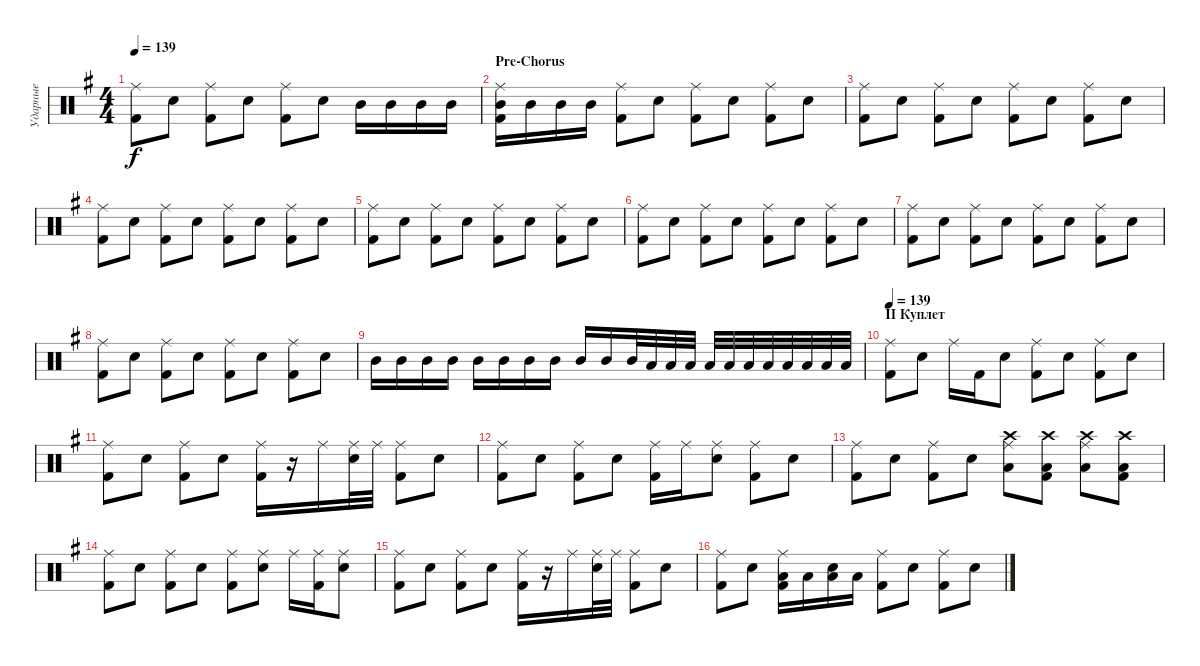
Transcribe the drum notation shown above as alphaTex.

\track ("Ударные" "Ударные") {instrument percussion}
\staff {score}
\articulation defaults
\ts (4 4)
\tempo 139
\clef neutral
\ks eminor
("Ride (middle)" "Kick (hit) 2").8{dy f} "Snare (hit) 2".8 ("Ride (middle)" "Kick (hit) 2").8 "Snare (hit) 2".8 ("Ride (middle)" "Kick (hit) 2").8 "Snare (hit) 2".8 "Mid Tom (hit)".16 "Mid Tom (hit)".16 "Mid Tom (hit)".16 "Mid Tom (hit)".16 |
\section ("" "Pre-Chorus")
("Ride (middle)" "Mid Tom (hit)" "Kick (hit) 2").16 "Mid Tom (hit)".16 "Mid Tom (hit)".16 "Mid Tom (hit)".16 ("Ride (middle)" "Kick (hit) 2").8 "Snare (hit) 2".8 ("Ride (middle)" "Kick (hit) 2").8 "Snare (hit) 2".8 ("Ride (middle)" "Kick (hit) 2").8 "Snare (hit) 2".8 |
("Ride (middle)" "Kick (hit) 2").8 "Snare (hit) 2".8 ("Ride (middle)" "Kick (hit) 2").8 "Snare (hit) 2".8 ("Ride (middle)" "Kick (hit) 2").8 "Snare (hit) 2".8 ("Ride (middle)" "Kick (hit) 2").8 "Snare (hit) 2".8 |
("Ride (middle)" "Kick (hit) 2").8 "Snare (hit) 2".8 ("Ride (middle)" "Kick (hit) 2").8 "Snare (hit) 2".8 ("Ride (middle)" "Kick (hit) 2").8 "Snare (hit) 2".8 ("Ride (middle)" "Kick (hit) 2").8 "Snare (hit) 2".8 |
("Ride (middle)" "Kick (hit) 2").8 "Snare (hit) 2".8 ("Ride (middle)" "Kick (hit) 2").8 "Snare (hit) 2".8 ("Ride (middle)" "Kick (hit) 2").8 "Snare (hit) 2".8 ("Ride (middle)" "Kick (hit) 2").8 "Snare (hit) 2".8 |
("Ride (middle)" "Kick (hit) 2").8 "Snare (hit) 2".8 ("Ride (middle)" "Kick (hit) 2").8 "Snare (hit) 2".8 ("Ride (middle)" "Kick (hit) 2").8 "Snare (hit) 2".8 ("Ride (middle)" "Kick (hit) 2").8 "Snare (hit) 2".8 |
("Ride (middle)" "Kick (hit) 2").8 "Snare (hit) 2".8 ("Ride (middle)" "Kick (hit) 2").8 "Snare (hit) 2".8 ("Ride (middle)" "Kick (hit) 2").8 "Snare (hit) 2".8 ("Ride (middle)" "Kick (hit) 2").8 "Snare (hit) 2".8 |
("Ride (middle)" "Kick (hit) 2").8 "Snare (hit) 2".8 ("Ride (middle)" "Kick (hit) 2").8 "Snare (hit) 2".8 ("Ride (middle)" "Kick (hit) 2").8 "Snare (hit) 2".8 ("Ride (middle)" "Kick (hit) 2").8 "Snare (hit) 2".8 |
"Mid Tom (hit)".16 "Mid Tom (hit)".16 "Mid Tom (hit)".16 "Mid Tom (hit)".16 "Mid Tom (hit)".16 "Mid Tom (hit)".16 "Mid Tom (hit)".16 "Mid Tom (hit)".16 "Mid Tom (hit)".16 "Mid Tom (hit)".16 "Mid Tom (hit)".32 "Low Tom (hit)".32 "Low Tom (hit)".32 "Low Tom (hit)".32 "Low Tom (hit)".32 "Low Tom (hit)".32 "Low Tom (hit)".32 "Low Tom (hit)".32 "Low Tom (hit)".32 "Low Tom (hit)".32 "Low Tom (hit)".32 "Low Tom (hit)".32 |
\section ("" "II Куплет")
\tempo 139
("Ride (middle)" "Kick (hit) 2").8 "Snare (hit) 2".8 "Ride (middle)".16 "Kick (hit) 2".16 "Snare (hit) 2".8 ("Ride (middle)" "Kick (hit) 2").8 "Snare (hit) 2".8 ("Ride (middle)" "Kick (hit) 2").8 "Snare (hit) 2".8 |
("Ride (middle)" "Kick (hit) 2").8 "Snare (hit) 2".8 ("Ride (middle)" "Kick (hit) 2").8 "Snare (hit) 2".8 ("Ride (middle)" "Kick (hit) 2").16 r.16 "Ride (middle)".16 ("Ride (middle)" "Snare (hit) 2").32 "Ride (middle)".32 ("Ride (middle)" "Kick (hit) 2").8 "Snare (hit) 2".8 |
("Ride (middle)" "Kick (hit) 2").8 "Snare (hit) 2".8 ("Ride (middle)" "Kick (hit) 2").8 "Snare (hit) 2".8 ("Ride (middle)" "Kick (hit) 2").16 "Ride (middle)".16 ("Ride (middle)" "Snare (hit) 2").8 ("Ride (middle)" "Kick (hit) 2").8 "Snare (hit) 2".8 |
("Ride (middle)" "Kick (hit) 2").8 "Snare (hit) 2".8 ("Ride (middle)" "Kick (hit) 2").8 "Snare (hit) 2".8 ("Crash high (hit)" "Ride (middle)" "Low Tom (hit)").8 ("Crash high (hit)" "Kick (hit) 2" "Low Tom (hit)").8 ("Crash high (hit)" "Ride (middle)" "Low Tom (hit)").8 ("Crash high (hit)" "Kick (hit) 2" "Low Tom (hit)").8 |
("Ride (middle)" "Kick (hit) 2").8 "Snare (hit) 2".8 ("Ride (middle)" "Kick (hit) 2").8 "Snare (hit) 2".8 ("Ride (middle)" "Kick (hit) 2").8 ("Ride (middle)" "Snare (hit) 2").8 "Ride (middle)".16 ("Ride (middle)" "Kick (hit) 2").16 ("Ride (middle)" "Snare (hit) 2").8 |
("Ride (middle)" "Kick (hit) 2").8 "Snare (hit) 2".8 ("Ride (middle)" "Kick (hit) 2").8 "Snare (hit) 2".8 ("Ride (middle)" "Kick (hit) 2").16 r.16 "Ride (middle)".16 ("Ride (middle)" "Snare (hit) 2").32 "Ride (middle)".32 ("Ride (middle)" "Kick (hit) 2").8 "Snare (hit) 2".8 |
("Ride (middle)" "Kick (hit) 2").8 "Snare (hit) 2".8 ("Low Tom (hit)" "Ride (middle)" "Kick (hit) 2").16 "Low Tom (hit)".16 ("Low Tom (hit)" "Snare (hit) 2").16 "Low Tom (hit)".16 ("Ride (middle)" "Kick (hit) 2").8 "Snare (hit) 2".8 ("Ride (middle)" "Kick (hit) 2").8 "Snare (hit) 2".8
